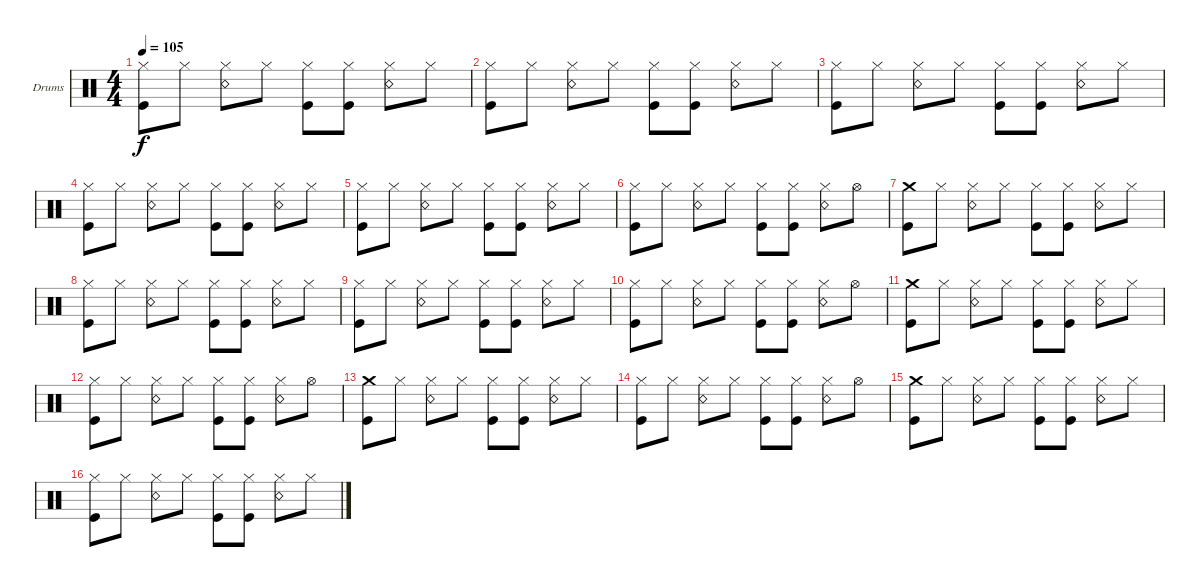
\defaultSystemsLayout 4
\bracketExtendMode groupsimilarinstruments
\firstSystemTrackNameOrientation horizontal
\otherSystemsTrackNameOrientation horizontal
\track ("Drumkit" "Drums") {instrument percussion}
\staff {score}
\articulation defaults
\ts (4 4)
\tempo 105
\clef neutral
\ks c
("Hi-Hat (closed)" "Kick (hit)").8{dy f} "Hi-Hat (closed)".8 ("Hi-Hat (closed)" "Snare (rim shot)").8 "Hi-Hat (closed)".8 ("Hi-Hat (closed)" "Kick (hit)").8 ("Hi-Hat (closed)" "Kick (hit)").8 ("Hi-Hat (closed)" "Snare (rim shot)").8 "Hi-Hat (closed)".8 |
("Hi-Hat (closed)" "Kick (hit)").8 "Hi-Hat (closed)".8 ("Hi-Hat (closed)" "Snare (rim shot)").8 "Hi-Hat (closed)".8 ("Hi-Hat (closed)" "Kick (hit)").8 ("Hi-Hat (closed)" "Kick (hit)").8 ("Hi-Hat (closed)" "Snare (rim shot)").8 "Hi-Hat (closed)".8 |
("Hi-Hat (closed)" "Kick (hit)").8 "Hi-Hat (closed)".8 ("Hi-Hat (closed)" "Snare (rim shot)").8 "Hi-Hat (closed)".8 ("Hi-Hat (closed)" "Kick (hit)").8 ("Hi-Hat (closed)" "Kick (hit)").8 ("Hi-Hat (closed)" "Snare (rim shot)").8 "Hi-Hat (closed)".8 |
("Hi-Hat (closed)" "Kick (hit)").8 "Hi-Hat (closed)".8 ("Hi-Hat (closed)" "Snare (rim shot)").8 "Hi-Hat (closed)".8 ("Hi-Hat (closed)" "Kick (hit)").8 ("Hi-Hat (closed)" "Kick (hit)").8 ("Hi-Hat (closed)" "Snare (rim shot)").8 "Hi-Hat (closed)".8 |
("Hi-Hat (closed)" "Kick (hit)").8 "Hi-Hat (closed)".8 ("Hi-Hat (closed)" "Snare (rim shot)").8 "Hi-Hat (closed)".8 ("Hi-Hat (closed)" "Kick (hit)").8 ("Hi-Hat (closed)" "Kick (hit)").8 ("Hi-Hat (closed)" "Snare (rim shot)").8 "Hi-Hat (closed)".8 |
("Hi-Hat (closed)" "Kick (hit)").8 "Hi-Hat (closed)".8 ("Hi-Hat (closed)" "Snare (rim shot)").8 "Hi-Hat (closed)".8 ("Hi-Hat (closed)" "Kick (hit)").8 ("Hi-Hat (closed)" "Kick (hit)").8 ("Hi-Hat (closed)" "Snare (rim shot)").8 "Hi-Hat (open)".8 |
("Kick (hit)" "Crash medium (hit)").8 "Hi-Hat (closed)".8 ("Hi-Hat (closed)" "Snare (rim shot)").8 "Hi-Hat (closed)".8 ("Hi-Hat (closed)" "Kick (hit)").8 ("Hi-Hat (closed)" "Kick (hit)").8 ("Hi-Hat (closed)" "Snare (rim shot)").8 "Hi-Hat (closed)".8 |
("Hi-Hat (closed)" "Kick (hit)").8 "Hi-Hat (closed)".8 ("Hi-Hat (closed)" "Snare (rim shot)").8 "Hi-Hat (closed)".8 ("Hi-Hat (closed)" "Kick (hit)").8 ("Hi-Hat (closed)" "Kick (hit)").8 ("Hi-Hat (closed)" "Snare (rim shot)").8 "Hi-Hat (closed)".8 |
("Kick (hit)" "Hi-Hat (closed)").8 "Hi-Hat (closed)".8 ("Hi-Hat (closed)" "Snare (rim shot)").8 "Hi-Hat (closed)".8 ("Hi-Hat (closed)" "Kick (hit)").8 ("Hi-Hat (closed)" "Kick (hit)").8 ("Hi-Hat (closed)" "Snare (rim shot)").8 "Hi-Hat (closed)".8 |
("Kick (hit)" "Hi-Hat (closed)").8 "Hi-Hat (closed)".8 ("Hi-Hat (closed)" "Snare (rim shot)").8 "Hi-Hat (closed)".8 ("Hi-Hat (closed)" "Kick (hit)").8 ("Hi-Hat (closed)" "Kick (hit)").8 ("Hi-Hat (closed)" "Snare (rim shot)").8 "Hi-Hat (open)".8 |
("Kick (hit)" "Crash medium (hit)").8 "Hi-Hat (closed)".8 ("Hi-Hat (closed)" "Snare (rim shot)").8 "Hi-Hat (closed)".8 ("Hi-Hat (closed)" "Kick (hit)").8 ("Hi-Hat (closed)" "Kick (hit)").8 ("Hi-Hat (closed)" "Snare (rim shot)").8 "Hi-Hat (closed)".8 |
("Hi-Hat (closed)" "Kick (hit)").8 "Hi-Hat (closed)".8 ("Hi-Hat (closed)" "Snare (rim shot)").8 "Hi-Hat (closed)".8 ("Hi-Hat (closed)" "Kick (hit)").8 ("Hi-Hat (closed)" "Kick (hit)").8 ("Hi-Hat (closed)" "Snare (rim shot)").8 "Hi-Hat (open)".8 |
("Kick (hit)" "Crash medium (hit)").8 "Hi-Hat (closed)".8 ("Hi-Hat (closed)" "Snare (rim shot)").8 "Hi-Hat (closed)".8 ("Hi-Hat (closed)" "Kick (hit)").8 ("Hi-Hat (closed)" "Kick (hit)").8 ("Hi-Hat (closed)" "Snare (rim shot)").8 "Hi-Hat (closed)".8 |
("Hi-Hat (closed)" "Kick (hit)").8 "Hi-Hat (closed)".8 ("Hi-Hat (closed)" "Snare (rim shot)").8 "Hi-Hat (closed)".8 ("Hi-Hat (closed)" "Kick (hit)").8 ("Hi-Hat (closed)" "Kick (hit)").8 ("Hi-Hat (closed)" "Snare (rim shot)").8 "Hi-Hat (open)".8 |
("Kick (hit)" "Crash medium (hit)").8 "Hi-Hat (closed)".8 ("Hi-Hat (closed)" "Snare (rim shot)").8 "Hi-Hat (closed)".8 ("Hi-Hat (closed)" "Kick (hit)").8 ("Hi-Hat (closed)" "Kick (hit)").8 ("Hi-Hat (closed)" "Snare (rim shot)").8 "Hi-Hat (closed)".8 |
("Hi-Hat (closed)" "Kick (hit)").8 "Hi-Hat (closed)".8 ("Hi-Hat (closed)" "Snare (rim shot)").8 "Hi-Hat (closed)".8 ("Hi-Hat (closed)" "Kick (hit)").8 ("Hi-Hat (closed)" "Kick (hit)").8 ("Hi-Hat (closed)" "Snare (rim shot)").8 "Hi-Hat (closed)".8
